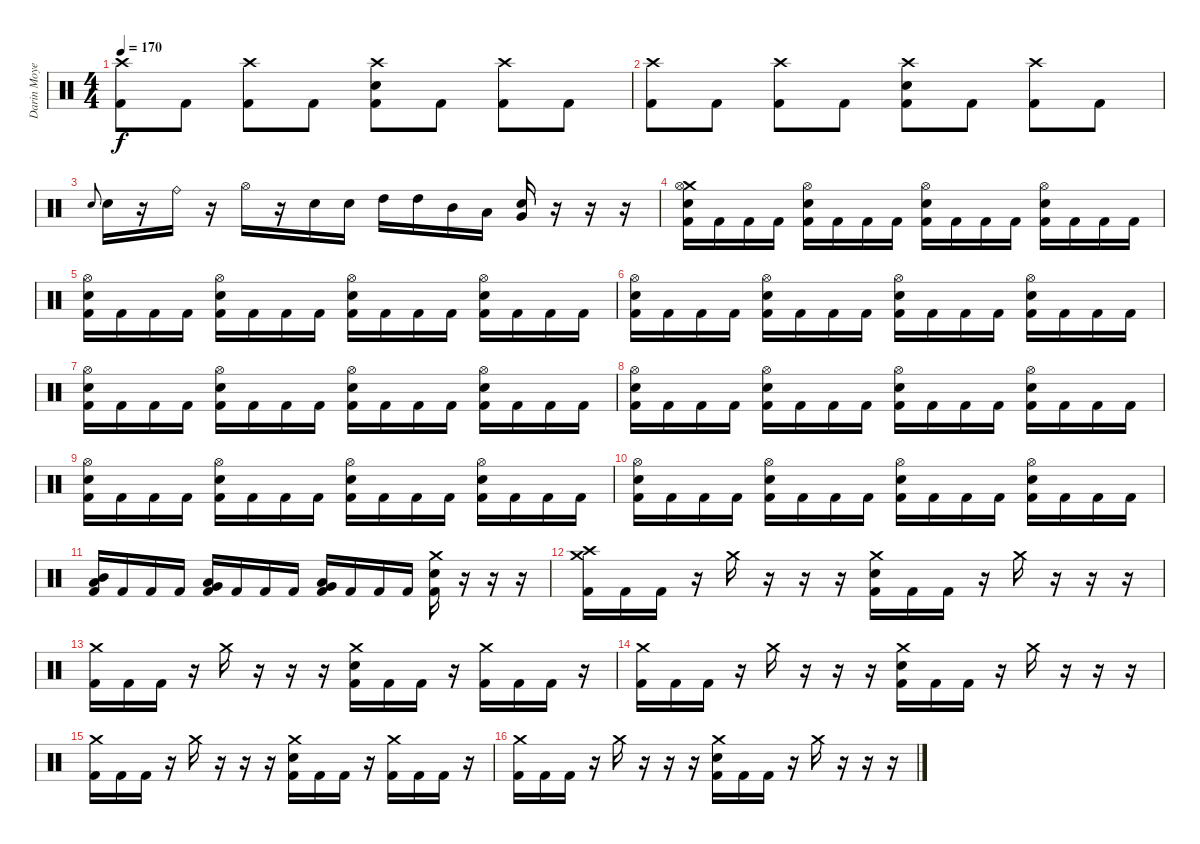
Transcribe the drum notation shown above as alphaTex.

\track ("Darin Moyen" "Darin Moye") {instrument percussion}
\staff {score}
\articulation defaults
\ts (4 4)
\tempo 170
\clef neutral
\ks c
("Crash high (hit)" "Kick (hit) 2").8{dy f} "Kick (hit) 2".8 ("Crash high (hit)" "Kick (hit) 2").8 "Kick (hit) 2".8 ("Crash high (hit)" "Electric Snare (hit)" "Kick (hit) 2").8 "Kick (hit) 2".8 ("Crash high (hit)" "Kick (hit) 2").8 "Kick (hit) 2".8 |
("Crash high (hit)" "Kick (hit) 2").8 "Kick (hit) 2".8 ("Crash high (hit)" "Kick (hit) 2").8 "Kick (hit) 2".8 ("Crash high (hit)" "Electric Snare (hit)" "Kick (hit) 2").8 "Kick (hit) 2".8 ("Crash high (hit)" "Kick (hit) 2").8 "Kick (hit) 2".8 |
"Electric Snare (hit)".8{gr onbeat} "Electric Snare (hit)".16 r.16 "Ride (bell)".16 r.16 "Hi-Hat (open)".16 r.16 "Electric Snare (hit)".16 "Electric Snare (hit)".16 "High Tom (hit)".16 "High Tom (hit)".16 "Mid Tom (hit)".16 "Low Tom (hit)".16 ("Very Low Tom (hit)" "Electric Snare (hit)").16 r.16 r.16 r.16 |
("Crash medium (hit)" "Hi-Hat (open)" "Electric Snare (hit)" "Kick (hit) 2").16 "Kick (hit) 2".16 "Kick (hit) 2".16 "Kick (hit) 2".16 ("Hi-Hat (open)" "Electric Snare (hit)" "Kick (hit) 2").16 "Kick (hit) 2".16 "Kick (hit) 2".16 "Kick (hit) 2".16 ("Hi-Hat (open)" "Electric Snare (hit)" "Kick (hit) 2").16 "Kick (hit) 2".16 "Kick (hit) 2".16 "Kick (hit) 2".16 ("Hi-Hat (open)" "Electric Snare (hit)" "Kick (hit) 2").16 "Kick (hit) 2".16 "Kick (hit) 2".16 "Kick (hit) 2".16 |
("Hi-Hat (open)" "Electric Snare (hit)" "Kick (hit) 2").16 "Kick (hit) 2".16 "Kick (hit) 2".16 "Kick (hit) 2".16 ("Hi-Hat (open)" "Electric Snare (hit)" "Kick (hit) 2").16 "Kick (hit) 2".16 "Kick (hit) 2".16 "Kick (hit) 2".16 ("Hi-Hat (open)" "Electric Snare (hit)" "Kick (hit) 2").16 "Kick (hit) 2".16 "Kick (hit) 2".16 "Kick (hit) 2".16 ("Hi-Hat (open)" "Electric Snare (hit)" "Kick (hit) 2").16 "Kick (hit) 2".16 "Kick (hit) 2".16 "Kick (hit) 2".16 |
("Hi-Hat (open)" "Electric Snare (hit)" "Kick (hit) 2").16 "Kick (hit) 2".16 "Kick (hit) 2".16 "Kick (hit) 2".16 ("Hi-Hat (open)" "Electric Snare (hit)" "Kick (hit) 2").16 "Kick (hit) 2".16 "Kick (hit) 2".16 "Kick (hit) 2".16 ("Hi-Hat (open)" "Electric Snare (hit)" "Kick (hit) 2").16 "Kick (hit) 2".16 "Kick (hit) 2".16 "Kick (hit) 2".16 ("Hi-Hat (open)" "Electric Snare (hit)" "Kick (hit) 2").16 "Kick (hit) 2".16 "Kick (hit) 2".16 "Kick (hit) 2".16 |
("Hi-Hat (open)" "Electric Snare (hit)" "Kick (hit) 2").16 "Kick (hit) 2".16 "Kick (hit) 2".16 "Kick (hit) 2".16 ("Hi-Hat (open)" "Electric Snare (hit)" "Kick (hit) 2").16 "Kick (hit) 2".16 "Kick (hit) 2".16 "Kick (hit) 2".16 ("Hi-Hat (open)" "Electric Snare (hit)" "Kick (hit) 2").16 "Kick (hit) 2".16 "Kick (hit) 2".16 "Kick (hit) 2".16 ("Hi-Hat (open)" "Electric Snare (hit)" "Kick (hit) 2").16 "Kick (hit) 2".16 "Kick (hit) 2".16 "Kick (hit) 2".16 |
("Hi-Hat (open)" "Electric Snare (hit)" "Kick (hit) 2").16 "Kick (hit) 2".16 "Kick (hit) 2".16 "Kick (hit) 2".16 ("Hi-Hat (open)" "Electric Snare (hit)" "Kick (hit) 2").16 "Kick (hit) 2".16 "Kick (hit) 2".16 "Kick (hit) 2".16 ("Hi-Hat (open)" "Electric Snare (hit)" "Kick (hit) 2").16 "Kick (hit) 2".16 "Kick (hit) 2".16 "Kick (hit) 2".16 ("Hi-Hat (open)" "Electric Snare (hit)" "Kick (hit) 2").16 "Kick (hit) 2".16 "Kick (hit) 2".16 "Kick (hit) 2".16 |
("Hi-Hat (open)" "Electric Snare (hit)" "Kick (hit) 2").16 "Kick (hit) 2".16 "Kick (hit) 2".16 "Kick (hit) 2".16 ("Hi-Hat (open)" "Electric Snare (hit)" "Kick (hit) 2").16 "Kick (hit) 2".16 "Kick (hit) 2".16 "Kick (hit) 2".16 ("Hi-Hat (open)" "Electric Snare (hit)" "Kick (hit) 2").16 "Kick (hit) 2".16 "Kick (hit) 2".16 "Kick (hit) 2".16 ("Hi-Hat (open)" "Electric Snare (hit)" "Kick (hit) 2").16 "Kick (hit) 2".16 "Kick (hit) 2".16 "Kick (hit) 2".16 |
("Hi-Hat (open)" "Electric Snare (hit)" "Kick (hit) 2").16 "Kick (hit) 2".16 "Kick (hit) 2".16 "Kick (hit) 2".16 ("Hi-Hat (open)" "Electric Snare (hit)" "Kick (hit) 2").16 "Kick (hit) 2".16 "Kick (hit) 2".16 "Kick (hit) 2".16 ("Hi-Hat (open)" "Electric Snare (hit)" "Kick (hit) 2").16 "Kick (hit) 2".16 "Kick (hit) 2".16 "Kick (hit) 2".16 ("Hi-Hat (open)" "Electric Snare (hit)" "Kick (hit) 2").16 "Kick (hit) 2".16 "Kick (hit) 2".16 "Kick (hit) 2".16 |
("Mid Tom (hit)" "Low Tom (hit)" "Kick (hit) 2").16 "Kick (hit) 2".16 "Kick (hit) 2".16 "Kick (hit) 2".16 ("Very Low Tom (hit)" "Low Tom (hit)" "Kick (hit) 2").16 "Kick (hit) 2".16 "Kick (hit) 2".16 "Kick (hit) 2".16 ("Low Tom (hit)" "Very Low Tom (hit)" "Kick (hit) 2").16 "Kick (hit) 2".16 "Kick (hit) 2".16 "Kick (hit) 2".16 ("Crash medium (hit)" "Electric Snare (hit)" "Kick (hit) 2").16 r.16 r.16 r.16 |
("Crash high (hit)" "Crash medium (hit)" "Kick (hit) 2").16 "Kick (hit) 2".16 "Kick (hit) 2".16 r.16 "Crash medium (hit)".16 r.16 r.16 r.16 ("Crash medium (hit)" "Electric Snare (hit)" "Kick (hit) 2").16 "Kick (hit) 2".16 "Kick (hit) 2".16 r.16 "Crash medium (hit)".16 r.16 r.16 r.16 |
("Crash medium (hit)" "Kick (hit) 2").16 "Kick (hit) 2".16 "Kick (hit) 2".16 r.16 "Crash medium (hit)".16 r.16 r.16 r.16 ("Crash medium (hit)" "Electric Snare (hit)" "Kick (hit) 2").16 "Kick (hit) 2".16 "Kick (hit) 2".16 r.16 ("Crash medium (hit)" "Kick (hit) 2").16 "Kick (hit) 2".16 "Kick (hit) 2".16 r.16 |
("Crash medium (hit)" "Kick (hit) 2").16 "Kick (hit) 2".16 "Kick (hit) 2".16 r.16 "Crash medium (hit)".16 r.16 r.16 r.16 ("Crash medium (hit)" "Electric Snare (hit)" "Kick (hit) 2").16 "Kick (hit) 2".16 "Kick (hit) 2".16 r.16 "Crash medium (hit)".16 r.16 r.16 r.16 |
("Crash medium (hit)" "Kick (hit) 2").16 "Kick (hit) 2".16 "Kick (hit) 2".16 r.16 "Crash medium (hit)".16 r.16 r.16 r.16 ("Crash medium (hit)" "Electric Snare (hit)" "Kick (hit) 2").16 "Kick (hit) 2".16 "Kick (hit) 2".16 r.16 ("Crash medium (hit)" "Kick (hit) 2").16 "Kick (hit) 2".16 "Kick (hit) 2".16 r.16 |
("Crash medium (hit)" "Kick (hit) 2").16 "Kick (hit) 2".16 "Kick (hit) 2".16 r.16 "Crash medium (hit)".16 r.16 r.16 r.16 ("Crash medium (hit)" "Electric Snare (hit)" "Kick (hit) 2").16 "Kick (hit) 2".16 "Kick (hit) 2".16 r.16 "Crash medium (hit)".16 r.16 r.16 r.16
